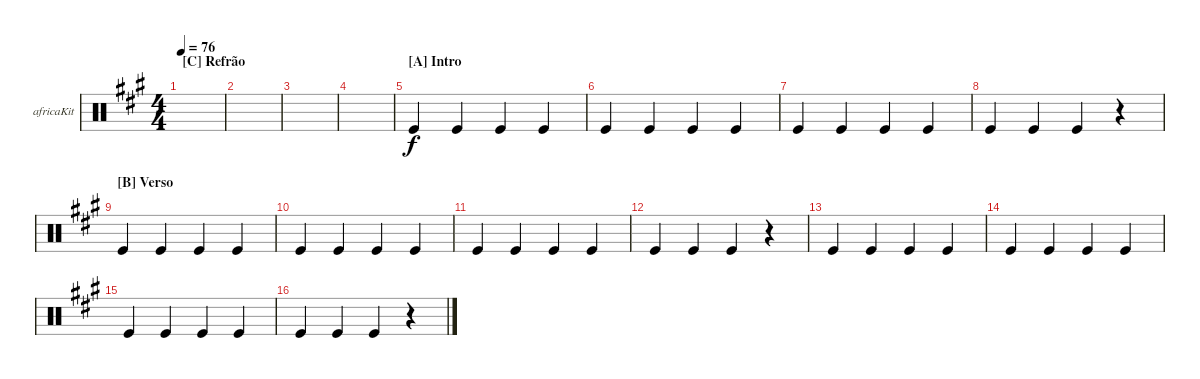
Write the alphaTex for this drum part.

\defaultSystemsLayout 4
\bracketExtendMode groupsimilarinstruments
\firstSystemTrackNameOrientation horizontal
\otherSystemsTrackNameOrientation horizontal
\track ("Kit-Africa" "africaKit") {instrument percussion}
\staff {score}
\articulation defaults
\ts (4 4)
\section ("C" "Refrão")
\tempo 76
\clef neutral
\scale
0.5
\ks a
|
\scale
0.5 |
\scale
0.5 |
\scale
0.5 |
\section ("A" "Intro")
\scale
0.5 "Kick (hit)".4 "Kick (hit)".4 "Kick (hit)".4 "Kick (hit)".4 |
\scale
0.5 "Kick (hit)".4 "Kick (hit)".4 "Kick (hit)".4 "Kick (hit)".4 |
\scale
0.5 "Kick (hit)".4 "Kick (hit)".4 "Kick (hit)".4 "Kick (hit)".4 |
\scale
0.5 "Kick (hit)".4 "Kick (hit)".4 "Kick (hit)".4 r.4 |
\section ("B" "Verso")
"Kick (hit)".4 "Kick (hit)".4 "Kick (hit)".4 "Kick (hit)".4 |
"Kick (hit)".4 "Kick (hit)".4 "Kick (hit)".4 "Kick (hit)".4 |
"Kick (hit)".4 "Kick (hit)".4 "Kick (hit)".4 "Kick (hit)".4 |
"Kick (hit)".4 "Kick (hit)".4 "Kick (hit)".4 r.4 |
\scale
0.5 "Kick (hit)".4 "Kick (hit)".4 "Kick (hit)".4 "Kick (hit)".4 |
\scale
1.08827 "Kick (hit)".4 "Kick (hit)".4 "Kick (hit)".4 "Kick (hit)".4 |
\scale
0.911728 "Kick (hit)".4 "Kick (hit)".4 "Kick (hit)".4 "Kick (hit)".4 |
\scale
1.05801 "Kick (hit)".4 "Kick (hit)".4 "Kick (hit)".4 r.4
